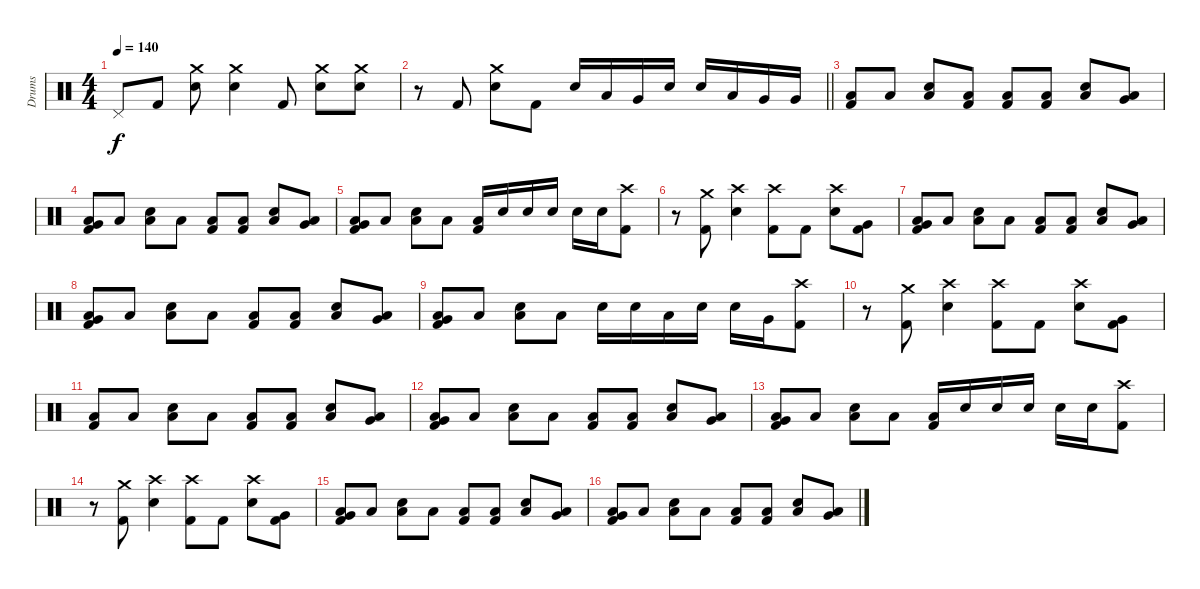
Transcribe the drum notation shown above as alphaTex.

\track ("Drums" "Drums") {instrument percussion}
\staff {score}
\articulation defaults
\ts (4 4)
\tempo 140
\clef neutral
\ks c "Pedal Hi-Hat (hit)".8{dy f} "Kick (hit) 2".8
("Crash medium (hit)" "Electric Snare (hit)").8 ("Crash medium (hit)" "Electric Snare (hit)").4 "Kick (hit) 2".8 ("Crash medium (hit)" "Electric Snare (hit)").8 ("Crash medium (hit)" "Electric Snare (hit)").8 |
\barLineRight lightlight
r.8 "Kick (hit) 2".8 ("Crash medium (hit)" "Electric Snare (hit)").8 "Kick (hit) 2".8 "Electric Snare (hit)".16 "Low Tom (hit)".16 "Very Low Tom (hit)".16 "Electric Snare (hit)".16 "Electric Snare (hit)".16 "Low Tom (hit)".16 "Very Low Tom (hit)".16 "Very Low Tom (hit)".16 |
("Low Floor Tom (hit)" "Kick (hit) 2").8 "Low Floor Tom (hit)".8 ("Electric Snare (hit)" "Low Floor Tom (hit)").8 ("Low Floor Tom (hit)" "Kick (hit) 2").8 ("Low Floor Tom (hit)" "Kick (hit) 2").8 ("Low Floor Tom (hit)" "Kick (hit) 2").8 ("Electric Snare (hit)" "Low Floor Tom (hit)").8 ("Very Low Tom (hit)" "Low Floor Tom (hit)").8 |
("Very Low Tom (hit)" "Low Floor Tom (hit)" "Kick (hit) 2").8 "Low Floor Tom (hit)".8 ("Electric Snare (hit)" "Low Floor Tom (hit)").8 "Low Floor Tom (hit)".8 ("Low Floor Tom (hit)" "Kick (hit) 2").8 ("Low Floor Tom (hit)" "Kick (hit) 2").8 ("Electric Snare (hit)" "Low Floor Tom (hit)").8 ("Very Low Tom (hit)" "Low Floor Tom (hit)").8 |
("Very Low Tom (hit)" "Low Floor Tom (hit)" "Kick (hit) 2").8 "Low Floor Tom (hit)".8 ("Electric Snare (hit)" "Low Floor Tom (hit)").8 "Low Floor Tom (hit)".8 ("Low Floor Tom (hit)" "Kick (hit) 2").16 "Electric Snare (hit)".16 "Electric Snare (hit)".16 "Electric Snare (hit)".16 "Electric Snare (hit)".16 "Electric Snare (hit)".16 ("Crash high (hit)" "Kick (hit) 2").8 |
r.8 ("Crash medium (hit)" "Kick (hit) 2").8 ("Crash high (hit)" "Electric Snare (hit)").4 ("Crash high (hit)" "Kick (hit) 2").8 "Kick (hit) 2".8 ("Crash high (hit)" "Electric Snare (hit)").8 ("Very Low Tom (hit)" "Kick (hit) 2").8 |
("Very Low Tom (hit)" "Low Floor Tom (hit)" "Kick (hit) 2").8 "Low Floor Tom (hit)".8 ("Electric Snare (hit)" "Low Floor Tom (hit)").8 "Low Floor Tom (hit)".8 ("Low Floor Tom (hit)" "Kick (hit) 2").8 ("Low Floor Tom (hit)" "Kick (hit) 2").8 ("Electric Snare (hit)" "Low Floor Tom (hit)").8 ("Very Low Tom (hit)" "Low Floor Tom (hit)").8 |
("Very Low Tom (hit)" "Low Floor Tom (hit)" "Kick (hit) 2").8 "Low Floor Tom (hit)".8 ("Electric Snare (hit)" "Low Floor Tom (hit)").8 "Low Floor Tom (hit)".8 ("Low Floor Tom (hit)" "Kick (hit) 2").8 ("Low Floor Tom (hit)" "Kick (hit) 2").8 ("Electric Snare (hit)" "Low Floor Tom (hit)").8 ("Very Low Tom (hit)" "Low Floor Tom (hit)").8 |
("Very Low Tom (hit)" "Low Floor Tom (hit)" "Kick (hit) 2").8 "Low Floor Tom (hit)".8 ("Electric Snare (hit)" "Low Floor Tom (hit)").8 "Low Floor Tom (hit)".8 "Electric Snare (hit)".16 "Electric Snare (hit)".16 "Low Tom (hit)".16 "Electric Snare (hit)".16 "Electric Snare (hit)".16 "Very Low Tom (hit)".16 ("Crash high (hit)" "Kick (hit) 2").8 |
r.8 ("Crash medium (hit)" "Kick (hit) 2").8 ("Crash high (hit)" "Electric Snare (hit)").4 ("Crash high (hit)" "Kick (hit) 2").8 "Kick (hit) 2".8 ("Crash high (hit)" "Electric Snare (hit)").8 ("Very Low Tom (hit)" "Kick (hit) 2").8 |
("Low Floor Tom (hit)" "Kick (hit) 2").8 "Low Floor Tom (hit)".8 ("Electric Snare (hit)" "Low Floor Tom (hit)").8 "Low Floor Tom (hit)".8 ("Low Floor Tom (hit)" "Kick (hit) 2").8 ("Low Floor Tom (hit)" "Kick (hit) 2").8 ("Electric Snare (hit)" "Low Floor Tom (hit)").8 ("Very Low Tom (hit)" "Low Floor Tom (hit)").8 |
("Very Low Tom (hit)" "Low Floor Tom (hit)" "Kick (hit) 2").8 "Low Floor Tom (hit)".8 ("Electric Snare (hit)" "Low Floor Tom (hit)").8 "Low Floor Tom (hit)".8 ("Low Floor Tom (hit)" "Kick (hit) 2").8 ("Low Floor Tom (hit)" "Kick (hit) 2").8 ("Electric Snare (hit)" "Low Floor Tom (hit)").8 ("Very Low Tom (hit)" "Low Floor Tom (hit)").8 |
("Very Low Tom (hit)" "Low Floor Tom (hit)" "Kick (hit) 2").8 "Low Floor Tom (hit)".8 ("Electric Snare (hit)" "Low Floor Tom (hit)").8 "Low Floor Tom (hit)".8 ("Low Floor Tom (hit)" "Kick (hit) 2").16 "Electric Snare (hit)".16 "Electric Snare (hit)".16 "Electric Snare (hit)".16 "Electric Snare (hit)".16 "Electric Snare (hit)".16 ("Crash high (hit)" "Kick (hit) 2").8 |
r.8 ("Crash medium (hit)" "Kick (hit) 2").8 ("Crash high (hit)" "Electric Snare (hit)").4 ("Crash high (hit)" "Kick (hit) 2").8 "Kick (hit) 2".8 ("Crash high (hit)" "Electric Snare (hit)").8 ("Very Low Tom (hit)" "Kick (hit) 2").8 |
("Very Low Tom (hit)" "Low Floor Tom (hit)" "Kick (hit) 2").8 "Low Floor Tom (hit)".8 ("Electric Snare (hit)" "Low Floor Tom (hit)").8 "Low Floor Tom (hit)".8 ("Low Floor Tom (hit)" "Kick (hit) 2").8 ("Low Floor Tom (hit)" "Kick (hit) 2").8 ("Electric Snare (hit)" "Low Floor Tom (hit)").8 ("Very Low Tom (hit)" "Low Floor Tom (hit)").8 |
("Very Low Tom (hit)" "Low Floor Tom (hit)" "Kick (hit) 2").8 "Low Floor Tom (hit)".8 ("Electric Snare (hit)" "Low Floor Tom (hit)").8 "Low Floor Tom (hit)".8 ("Low Floor Tom (hit)" "Kick (hit) 2").8 ("Low Floor Tom (hit)" "Kick (hit) 2").8 ("Electric Snare (hit)" "Low Floor Tom (hit)").8 ("Very Low Tom (hit)" "Low Floor Tom (hit)").8
